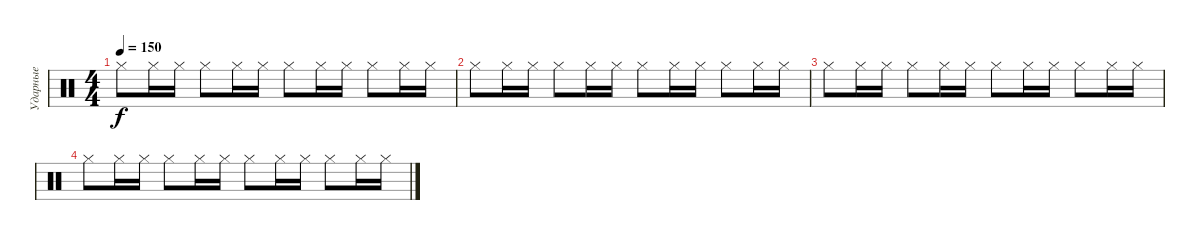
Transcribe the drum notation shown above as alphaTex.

\track ("Ударные" "Ударные") {instrument percussion}
\staff {score}
\articulation defaults
\ts (4 4)
\tempo 150
\clef neutral
\ks c "Hi-Hat (closed)".8{dy f} "Hi-Hat (closed)".16 "Hi-Hat (closed)".16 "Hi-Hat (closed)".8 "Hi-Hat (closed)".16 "Hi-Hat (closed)".16 "Hi-Hat (closed)".8 "Hi-Hat (closed)".16 "Hi-Hat (closed)".16 "Hi-Hat (closed)".8 "Hi-Hat (closed)".16 "Hi-Hat (closed)".16
|
"Hi-Hat (closed)".8 "Hi-Hat (closed)".16 "Hi-Hat (closed)".16 "Hi-Hat (closed)".8 "Hi-Hat (closed)".16 "Hi-Hat (closed)".16 "Hi-Hat (closed)".8 "Hi-Hat (closed)".16 "Hi-Hat (closed)".16 "Hi-Hat (closed)".8 "Hi-Hat (closed)".16 "Hi-Hat (closed)".16 |
"Hi-Hat (closed)".8 "Hi-Hat (closed)".16 "Hi-Hat (closed)".16 "Hi-Hat (closed)".8 "Hi-Hat (closed)".16 "Hi-Hat (closed)".16 "Hi-Hat (closed)".8 "Hi-Hat (closed)".16 "Hi-Hat (closed)".16 "Hi-Hat (closed)".8 "Hi-Hat (closed)".16 "Hi-Hat (closed)".16 |
"Hi-Hat (closed)".8 "Hi-Hat (closed)".16 "Hi-Hat (closed)".16 "Hi-Hat (closed)".8 "Hi-Hat (closed)".16 "Hi-Hat (closed)".16 "Hi-Hat (closed)".8 "Hi-Hat (closed)".16 "Hi-Hat (closed)".16 "Hi-Hat (closed)".8 "Hi-Hat (closed)".16 "Hi-Hat (closed)".16
